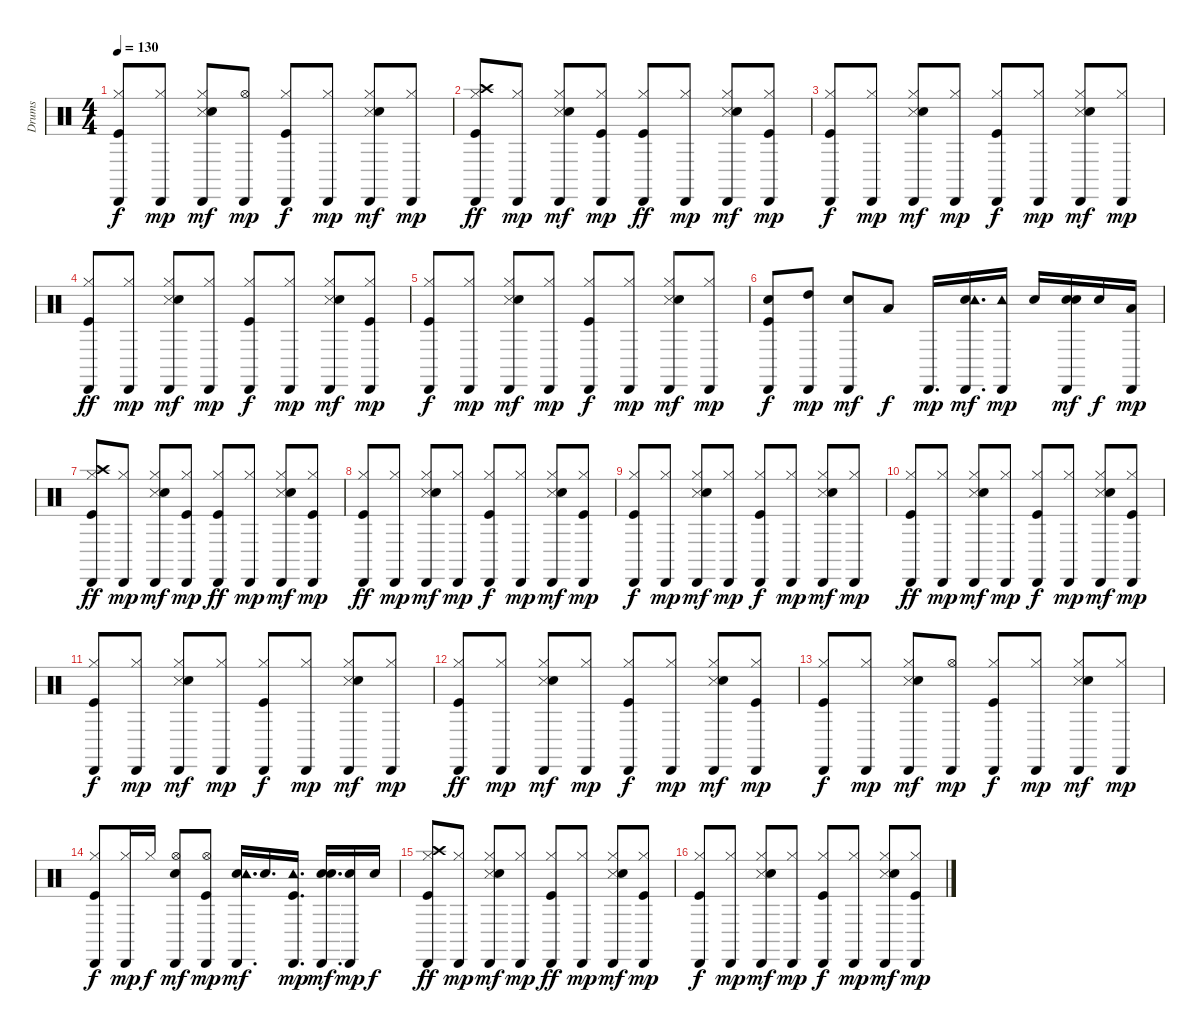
\track ("Drums" "Drums") {instrument percussion}
\staff {score}
\articulation defaults
\ts (4 4)
\tempo 130
\clef neutral
\ks c
("Kick (hit)" "Hi-Hat (closed)" "Cabasa (hit)").8{dy f} ("Hi-Hat (closed)" "Cabasa (hit)").8{dy mp} ("Hi-Hat (closed)" "Snare (side stick) 3" "Hand Clap (hit)" "Cabasa (hit)").8{dy mf} ("Hi-Hat (open)" "Cabasa (hit)").8{dy mp} ("Kick (hit)" "Hi-Hat (closed)" "Cabasa (hit)").8{dy f} ("Hi-Hat (closed)" "Cabasa (hit)").8{dy mp} ("Hi-Hat (closed)" "Snare (side stick) 3" "Hand Clap (hit)" "Cabasa (hit)").8{dy mf} ("Hi-Hat (closed)" "Cabasa (hit)").8{dy mp} |
("Kick (hit)" "Hi-Hat (closed)" "Crash high (hit)" "Cabasa (hit)").8{dy ff} ("Hi-Hat (closed)" "Cabasa (hit)").8{dy mp} ("Hi-Hat (closed)" "Snare (side stick) 3" "Hand Clap (hit)" "Cabasa (hit)").8{dy mf} ("Kick (hit)" "Hi-Hat (closed)" "Cabasa (hit)").8{dy mp} ("Kick (hit)" "Hi-Hat (closed)" "Cabasa (hit)").8{dy ff} ("Hi-Hat (closed)" "Cabasa (hit)").8{dy mp} ("Hi-Hat (closed)" "Snare (side stick) 3" "Hand Clap (hit)" "Cabasa (hit)").8{dy mf} ("Kick (hit)" "Hi-Hat (closed)" "Cabasa (hit)").8{dy mp} |
("Kick (hit)" "Hi-Hat (closed)" "Cabasa (hit)").8{dy f} ("Hi-Hat (closed)" "Cabasa (hit)").8{dy mp} ("Hi-Hat (closed)" "Snare (side stick) 3" "Hand Clap (hit)" "Cabasa (hit)").8{dy mf} ("Hi-Hat (closed)" "Cabasa (hit)").8{dy mp} ("Kick (hit)" "Hi-Hat (closed)" "Cabasa (hit)").8{dy f} ("Hi-Hat (closed)" "Cabasa (hit)").8{dy mp} ("Hi-Hat (closed)" "Snare (side stick) 3" "Hand Clap (hit)" "Cabasa (hit)").8{dy mf} ("Hi-Hat (closed)" "Cabasa (hit)").8{dy mp} |
("Kick (hit)" "Hi-Hat (closed)" "Cabasa (hit)").8{dy ff} ("Hi-Hat (closed)" "Cabasa (hit)").8{dy mp} ("Hi-Hat (closed)" "Snare (side stick) 3" "Hand Clap (hit)" "Cabasa (hit)").8{dy mf} ("Hi-Hat (closed)" "Cabasa (hit)").8{dy mp} ("Kick (hit)" "Hi-Hat (closed)" "Cabasa (hit)").8{dy f} ("Hi-Hat (closed)" "Cabasa (hit)").8{dy mp} ("Hi-Hat (closed)" "Snare (side stick) 3" "Hand Clap (hit)" "Cabasa (hit)").8{dy mf} ("Kick (hit)" "Hi-Hat (closed)" "Cabasa (hit)").8{dy mp} |
("Kick (hit)" "Hi-Hat (closed)" "Cabasa (hit)").8{dy f} ("Hi-Hat (closed)" "Cabasa (hit)").8{dy mp} ("Hi-Hat (closed)" "Snare (side stick) 3" "Hand Clap (hit)" "Cabasa (hit)").8{dy mf} ("Hi-Hat (closed)" "Cabasa (hit)").8{dy mp} ("Kick (hit)" "Hi-Hat (closed)" "Cabasa (hit)").8{dy f} ("Hi-Hat (closed)" "Cabasa (hit)").8{dy mp} ("Hi-Hat (closed)" "Snare (side stick) 3" "Hand Clap (hit)" "Cabasa (hit)").8{dy mf} ("Hi-Hat (closed)" "Cabasa (hit)").8{dy mp} |
("Kick (hit)" "Snare (hit) 2" "Cabasa (hit)").8{dy f} ("High Tom (hit)" "Cabasa (hit)").8{dy mp} ("Hand Clap (hit)" "Cabasa (hit)").8{dy mf} "Low Tom (hit)".8{dy f} "Cabasa (hit)".16{d dy mp} ("Snare (hit) 2" "Tambourine (hit)" "Cabasa (hit)").16{d dy mf} ("Tambourine (hit)" "Cabasa (hit)").16{dy mp} "Snare (hit) 2".16 ("Snare (hit) 2" "Hand Clap (hit)" "Cabasa (hit)").16{dy mf} "Snare (hit) 2".16{dy f} ("Low Floor Tom (hit)" "Cabasa (hit)").16{dy mp} |
("Kick (hit)" "Hi-Hat (closed)" "Crash high (hit)" "Cabasa (hit)").8{dy ff} ("Hi-Hat (closed)" "Cabasa (hit)").8{dy mp} ("Hi-Hat (closed)" "Snare (side stick) 3" "Hand Clap (hit)" "Cabasa (hit)").8{dy mf} ("Kick (hit)" "Hi-Hat (closed)" "Cabasa (hit)").8{dy mp} ("Kick (hit)" "Hi-Hat (closed)" "Cabasa (hit)").8{dy ff} ("Hi-Hat (closed)" "Cabasa (hit)").8{dy mp} ("Hi-Hat (closed)" "Snare (side stick) 3" "Hand Clap (hit)" "Cabasa (hit)").8{dy mf} ("Kick (hit)" "Hi-Hat (closed)" "Cabasa (hit)").8{dy mp} |
("Kick (hit)" "Hi-Hat (closed)" "Cabasa (hit)").8{dy ff} ("Hi-Hat (closed)" "Cabasa (hit)").8{dy mp} ("Hi-Hat (closed)" "Snare (side stick) 3" "Hand Clap (hit)" "Cabasa (hit)").8{dy mf} ("Hi-Hat (closed)" "Cabasa (hit)").8{dy mp} ("Kick (hit)" "Hi-Hat (closed)" "Cabasa (hit)").8{dy f} ("Hi-Hat (closed)" "Cabasa (hit)").8{dy mp} ("Hi-Hat (closed)" "Snare (side stick) 3" "Hand Clap (hit)" "Cabasa (hit)").8{dy mf} ("Kick (hit)" "Hi-Hat (closed)" "Cabasa (hit)").8{dy mp} |
("Kick (hit)" "Hi-Hat (closed)" "Cabasa (hit)").8{dy f} ("Hi-Hat (closed)" "Cabasa (hit)").8{dy mp} ("Hi-Hat (closed)" "Snare (side stick) 3" "Hand Clap (hit)" "Cabasa (hit)").8{dy mf} ("Hi-Hat (closed)" "Cabasa (hit)").8{dy mp} ("Kick (hit)" "Hi-Hat (closed)" "Cabasa (hit)").8{dy f} ("Hi-Hat (closed)" "Cabasa (hit)").8{dy mp} ("Hi-Hat (closed)" "Snare (side stick) 3" "Hand Clap (hit)" "Cabasa (hit)").8{dy mf} ("Hi-Hat (closed)" "Cabasa (hit)").8{dy mp} |
("Kick (hit)" "Hi-Hat (closed)" "Cabasa (hit)").8{dy ff} ("Hi-Hat (closed)" "Cabasa (hit)").8{dy mp} ("Hi-Hat (closed)" "Snare (side stick) 3" "Hand Clap (hit)" "Cabasa (hit)").8{dy mf} ("Hi-Hat (closed)" "Cabasa (hit)").8{dy mp} ("Kick (hit)" "Hi-Hat (closed)" "Cabasa (hit)").8{dy f} ("Hi-Hat (closed)" "Cabasa (hit)").8{dy mp} ("Hi-Hat (closed)" "Snare (side stick) 3" "Hand Clap (hit)" "Cabasa (hit)").8{dy mf} ("Kick (hit)" "Hi-Hat (closed)" "Cabasa (hit)").8{dy mp} |
("Kick (hit)" "Hi-Hat (closed)" "Cabasa (hit)").8{dy f} ("Hi-Hat (closed)" "Cabasa (hit)").8{dy mp} ("Hi-Hat (closed)" "Snare (side stick) 3" "Hand Clap (hit)" "Cabasa (hit)").8{dy mf} ("Hi-Hat (closed)" "Cabasa (hit)").8{dy mp} ("Kick (hit)" "Hi-Hat (closed)" "Cabasa (hit)").8{dy f} ("Hi-Hat (closed)" "Cabasa (hit)").8{dy mp} ("Hi-Hat (closed)" "Snare (side stick) 3" "Hand Clap (hit)" "Cabasa (hit)").8{dy mf} ("Hi-Hat (closed)" "Cabasa (hit)").8{dy mp} |
("Kick (hit)" "Hi-Hat (closed)" "Cabasa (hit)").8{dy ff} ("Hi-Hat (closed)" "Cabasa (hit)").8{dy mp} ("Hi-Hat (closed)" "Snare (side stick) 3" "Hand Clap (hit)" "Cabasa (hit)").8{dy mf} ("Hi-Hat (closed)" "Cabasa (hit)").8{dy mp} ("Kick (hit)" "Hi-Hat (closed)" "Cabasa (hit)").8{dy f} ("Hi-Hat (closed)" "Cabasa (hit)").8{dy mp} ("Hi-Hat (closed)" "Snare (side stick) 3" "Hand Clap (hit)" "Cabasa (hit)").8{dy mf} ("Kick (hit)" "Hi-Hat (closed)" "Cabasa (hit)").8{dy mp} |
("Kick (hit)" "Hi-Hat (closed)" "Cabasa (hit)").8{dy f} ("Hi-Hat (closed)" "Cabasa (hit)").8{dy mp} ("Hi-Hat (closed)" "Snare (side stick) 3" "Hand Clap (hit)" "Cabasa (hit)").8{dy mf} ("Hi-Hat (open)" "Cabasa (hit)").8{dy mp} ("Kick (hit)" "Hi-Hat (closed)" "Cabasa (hit)").8{dy f} ("Hi-Hat (closed)" "Cabasa (hit)").8{dy mp} ("Hi-Hat (closed)" "Snare (side stick) 3" "Hand Clap (hit)" "Cabasa (hit)").8{dy mf} ("Hi-Hat (closed)" "Cabasa (hit)").8{dy mp} |
("Kick (hit)" "Hi-Hat (closed)" "Cabasa (hit)").8{dy f} ("Hi-Hat (closed)" "Cabasa (hit)").16{dy mp} "Hi-Hat (closed)".16{dy f} ("Hi-Hat (open)" "Hand Clap (hit)" "Cabasa (hit)").8{dy mf} ("Kick (hit)" "Hi-Hat (open)" "Cabasa (hit)").8{dy mp} ("Snare (hit) 2" "Tambourine (hit)" "Cabasa (hit)").16{d dy mf} "Snare (hit) 2".16{d} ("Kick (hit)" "Tambourine (hit)" "Cabasa (hit)").16{d dy mp} ("Snare (hit) 2" "Hand Clap (hit)" "Cabasa (hit)").16{d dy mf} ("Snare (hit) 2" "Cabasa (hit)").16{dy mp} "Snare (hit) 2".16{dy f} |
("Kick (hit)" "Hi-Hat (closed)" "Crash high (hit)" "Cabasa (hit)").8{dy ff} ("Hi-Hat (closed)" "Cabasa (hit)").8{dy mp} ("Hi-Hat (closed)" "Snare (side stick) 3" "Hand Clap (hit)" "Cabasa (hit)").8{dy mf} ("Hi-Hat (closed)" "Cabasa (hit)").8{dy mp} ("Kick (hit)" "Hi-Hat (closed)" "Cabasa (hit)").8{dy ff} ("Hi-Hat (closed)" "Cabasa (hit)").8{dy mp} ("Hi-Hat (closed)" "Snare (side stick) 3" "Hand Clap (hit)" "Cabasa (hit)").8{dy mf} ("Kick (hit)" "Hi-Hat (closed)" "Cabasa (hit)").8{dy mp} |
("Kick (hit)" "Hi-Hat (closed)" "Cabasa (hit)").8{dy f} ("Hi-Hat (closed)" "Cabasa (hit)").8{dy mp} ("Hi-Hat (closed)" "Snare (side stick) 3" "Hand Clap (hit)" "Cabasa (hit)").8{dy mf} ("Hi-Hat (closed)" "Cabasa (hit)").8{dy mp} ("Kick (hit)" "Hi-Hat (closed)" "Cabasa (hit)").8{dy f} ("Hi-Hat (closed)" "Cabasa (hit)").8{dy mp} ("Hi-Hat (closed)" "Snare (side stick) 3" "Hand Clap (hit)" "Cabasa (hit)").8{dy mf} ("Kick (hit)" "Hi-Hat (closed)" "Cabasa (hit)").8{dy mp}
